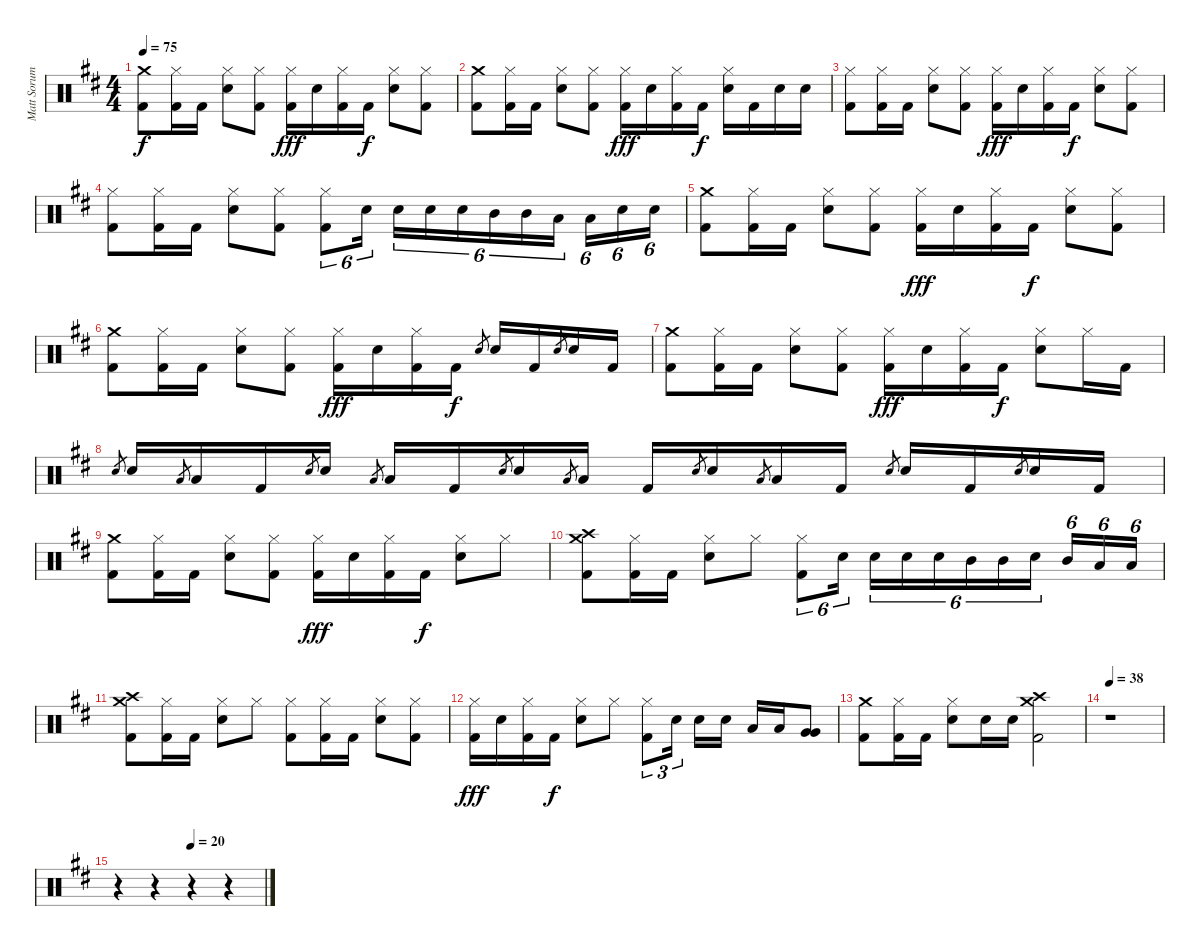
\track ("Matt Sorum- Drums" "Matt Sorum") {instrument percussion}
\staff {score}
\articulation defaults
\ts (4 4)
\tempo 75
\clef neutral
\ks d
("Crash medium (hit)" "Kick (hit) 2").8{dy f} ("Hi-Hat (closed)" "Kick (hit) 2").16 "Kick (hit) 2".16 ("Hi-Hat (closed)" "Snare (hit) 2").8 ("Hi-Hat (closed)" "Kick (hit) 2").8 ("Hi-Hat (closed)" "Kick (hit) 2").16{dy fff} "Snare (hit) 2".16 ("Hi-Hat (closed)" "Kick (hit) 2").16 "Kick (hit) 2".16{dy f} ("Hi-Hat (closed)" "Snare (hit) 2").8 ("Hi-Hat (closed)" "Kick (hit) 2").8 |
("Crash medium (hit)" "Kick (hit) 2").8 ("Hi-Hat (closed)" "Kick (hit) 2").16 "Kick (hit) 2".16 ("Hi-Hat (closed)" "Snare (hit) 2").8 ("Hi-Hat (closed)" "Kick (hit) 2").8 ("Hi-Hat (closed)" "Kick (hit) 2").16{dy fff} "Snare (hit) 2".16 ("Hi-Hat (closed)" "Kick (hit) 2").16 "Kick (hit) 2".16{dy f} ("Hi-Hat (closed)" "Snare (hit) 2").16 "Kick (hit) 2".16 "Snare (hit) 2".16 "Snare (hit) 2".16 |
("Hi-Hat (closed)" "Kick (hit) 2").8 ("Hi-Hat (closed)" "Kick (hit) 2").16 "Kick (hit) 2".16 ("Hi-Hat (closed)" "Snare (hit) 2").8 ("Hi-Hat (closed)" "Kick (hit) 2").8 ("Hi-Hat (closed)" "Kick (hit) 2").16{dy fff} "Snare (hit) 2".16 ("Hi-Hat (closed)" "Kick (hit) 2").16 "Kick (hit) 2".16{dy f} ("Hi-Hat (closed)" "Snare (hit) 2").8 ("Hi-Hat (closed)" "Kick (hit) 2").8 |
("Hi-Hat (closed)" "Kick (hit) 2").8 ("Hi-Hat (closed)" "Kick (hit) 2").16 "Kick (hit) 2".16 ("Hi-Hat (closed)" "Snare (hit) 2").8 ("Hi-Hat (closed)" "Kick (hit) 2").8 ("Hi-Hat (closed)" "Kick (hit) 2").8{tu (6 4)} "Snare (hit) 2".16{tu (6 4) beam splitsecondary} "Snare (hit) 2".16{tu (6 4)} "Snare (hit) 2".16{tu (6 4)} "Snare (hit) 2".16{tu (6 4)} "Mid Tom (hit)".16{tu (6 4)} "Mid Tom (hit)".16{tu (6 4)} "Low Tom (hit)".16{tu (6 4) beam splitsecondary} "Low Tom (hit)".16{tu (6 4)} "Snare (hit) 2".16{tu (6 4)} "Snare (hit) 2".16{tu (6 4)} |
("Crash medium (hit)" "Kick (hit) 2").8 ("Hi-Hat (closed)" "Kick (hit) 2").16 "Kick (hit) 2".16 ("Hi-Hat (closed)" "Snare (hit) 2").8 ("Hi-Hat (closed)" "Kick (hit) 2").8 ("Hi-Hat (closed)" "Kick (hit) 2").16{dy fff} "Snare (hit) 2".16 ("Hi-Hat (closed)" "Kick (hit) 2").16 "Kick (hit) 2".16{dy f} ("Hi-Hat (closed)" "Snare (hit) 2").8 ("Hi-Hat (closed)" "Kick (hit) 2").8 |
("Crash medium (hit)" "Kick (hit) 2").8 ("Hi-Hat (closed)" "Kick (hit) 2").16 "Kick (hit) 2".16 ("Hi-Hat (closed)" "Snare (hit) 2").8 ("Hi-Hat (closed)" "Kick (hit) 2").8 ("Hi-Hat (closed)" "Kick (hit) 2").16{dy fff} "Snare (hit) 2".16 ("Hi-Hat (closed)" "Kick (hit) 2").16 "Kick (hit) 2".16{dy f} "Snare (hit) 2".8{gr} "Snare (hit) 2".16 "Kick (hit) 2".16 "Snare (hit) 2".8{gr} "Snare (hit) 2".16 "Kick (hit) 2".16 |
("Crash medium (hit)" "Kick (hit) 2").8 ("Hi-Hat (closed)" "Kick (hit) 2").16 "Kick (hit) 2".16 ("Hi-Hat (closed)" "Snare (hit) 2").8 ("Hi-Hat (closed)" "Kick (hit) 2").8 ("Hi-Hat (closed)" "Kick (hit) 2").16{dy fff} "Snare (hit) 2".16 ("Hi-Hat (closed)" "Kick (hit) 2").16 "Kick (hit) 2".16{dy f} ("Hi-Hat (closed)" "Snare (hit) 2").8 "Hi-Hat (closed)".16 "Kick (hit) 2".16 |
"Snare (hit) 2".8{gr} "Snare (hit) 2".16 "Low Tom (hit)".8{gr} "Low Tom (hit)".16 "Kick (hit) 2".16 "Snare (hit) 2".8{gr} "Snare (hit) 2".16 "Low Tom (hit)".8{gr} "Low Tom (hit)".16 "Kick (hit) 2".16 "Snare (hit) 2".8{gr} "Snare (hit) 2".16 "Low Tom (hit)".8{gr} "Low Tom (hit)".16 "Kick (hit) 2".16 "Snare (hit) 2".8{gr} "Snare (hit) 2".16 "Low Tom (hit)".8{gr} "Low Tom (hit)".16 "Kick (hit) 2".16 "Snare (hit) 2".8{gr} "Snare (hit) 2".16 "Kick (hit) 2".16 "Snare (hit) 2".8{gr} "Snare (hit) 2".16 "Kick (hit) 2".16 |
("Crash medium (hit)" "Kick (hit) 2").8 ("Hi-Hat (closed)" "Kick (hit) 2").16 "Kick (hit) 2".16 ("Hi-Hat (closed)" "Snare (hit) 2").8 ("Hi-Hat (closed)" "Kick (hit) 2").8 ("Hi-Hat (closed)" "Kick (hit) 2").16{dy fff} "Snare (hit) 2".16 ("Hi-Hat (closed)" "Kick (hit) 2").16 "Kick (hit) 2".16{dy f} ("Hi-Hat (closed)" "Snare (hit) 2").8 "Hi-Hat (closed)".8 |
("Crash medium (hit)" "Crash high (hit)" "Kick (hit) 2").8 ("Hi-Hat (closed)" "Kick (hit) 2").16 "Kick (hit) 2".16 ("Hi-Hat (closed)" "Snare (hit) 2").8 "Hi-Hat (closed)".8 ("Hi-Hat (closed)" "Kick (hit) 2").8{tu (6 4)} "Snare (hit) 2".16{tu (6 4) beam splitsecondary} "Snare (hit) 2".16{tu (6 4)} "Snare (hit) 2".16{tu (6 4)} "Snare (hit) 2".16{tu (6 4)} "Mid Tom (hit)".16{tu (6 4)} "Mid Tom (hit)".16{tu (6 4)} "Snare (hit) 2".16{tu (6 4) beam splitsecondary} "Mid Tom (hit)".16{tu (6 4)} "Low Tom (hit)".16{tu (6 4)} "Low Tom (hit)".16{tu (6 4)} |
("Crash medium (hit)" "Crash high (hit)" "Kick (hit) 2").8 ("Hi-Hat (closed)" "Kick (hit) 2").16 "Kick (hit) 2".16 ("Hi-Hat (closed)" "Snare (hit) 2").8 "Hi-Hat (closed)".8 ("Hi-Hat (closed)" "Kick (hit) 2").8 ("Hi-Hat (closed)" "Kick (hit) 2").16 "Kick (hit) 2".16 ("Hi-Hat (closed)" "Snare (hit) 2").8 ("Hi-Hat (closed)" "Kick (hit) 2").8 |
("Hi-Hat (closed)" "Kick (hit) 2").16{dy fff} "Snare (hit) 2".16 ("Hi-Hat (closed)" "Kick (hit) 2").16 "Kick (hit) 2".16{dy f} ("Hi-Hat (closed)" "Snare (hit) 2").8 "Hi-Hat (closed)".8 ("Hi-Hat (closed)" "Kick (hit) 2").8{tu (3 2)} "Snare (hit) 2".16{tu (3 2) beam splitsecondary} "Snare (hit) 2".16 "Snare (hit) 2".16 "Low Tom (hit)".16 "Low Tom (hit)".16 ("Very Low Tom (hit)" "Very Low Tom (hit)").8 |
("Crash medium (hit)" "Kick (hit) 2").8 ("Hi-Hat (closed)" "Kick (hit) 2").16 "Kick (hit) 2".16 ("Hi-Hat (closed)" "Snare (hit) 2").8 "Snare (hit) 2".16 "Snare (hit) 2".16 ("Crash medium (hit)" "Crash high (hit)" "Kick (hit) 2").2 |
\tempo 38
r.1 |
\tempo (20 0.5)
r.4 r.4 r.4 r.4
